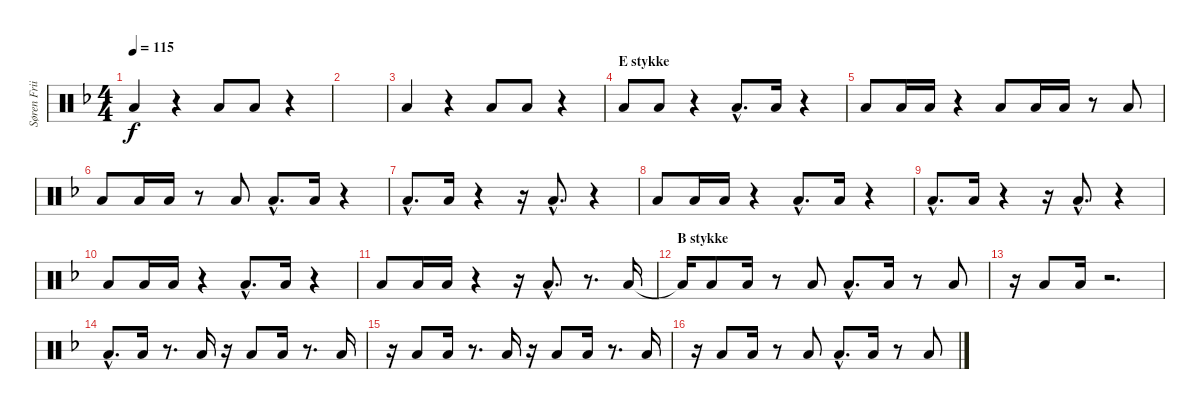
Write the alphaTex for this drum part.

\track ("Søren Friis (Floor Drum)" "Søren Frii") {instrument percussion}
\staff {score}
\articulation defaults
\ts (4 4)
\tempo 115
\clef neutral
\ks f "Low Floor Tom (hit)".4{dy f}
r.4 "Low Floor Tom (hit)".8 "Low Floor Tom (hit)".8 r.4 |
|
"Low Floor Tom (hit)".4 r.4 "Low Floor Tom (hit)".8 "Low Floor Tom (hit)".8 r.4 |
\section ("" "E stykke")
"Low Floor Tom (hit)".8 "Low Floor Tom (hit)".8 r.4 "Low Floor Tom (hit)"{hac}.8{d} "Low Floor Tom (hit)".16 r.4 |
"Low Floor Tom (hit)".8 "Low Floor Tom (hit)".16 "Low Floor Tom (hit)".16 r.4 "Low Floor Tom (hit)".8 "Low Floor Tom (hit)".16 "Low Floor Tom (hit)".16 r.8 "Low Floor Tom (hit)".8 |
"Low Floor Tom (hit)".8 "Low Floor Tom (hit)".16 "Low Floor Tom (hit)".16 r.8 "Low Floor Tom (hit)".8 "Low Floor Tom (hit)"{hac}.8{d} "Low Floor Tom (hit)".16 r.4 |
"Low Floor Tom (hit)"{hac}.8{d} "Low Floor Tom (hit)".16 r.4 r.16 "Low Floor Tom (hit)"{hac}.8{d} r.4 |
"Low Floor Tom (hit)".8 "Low Floor Tom (hit)".16 "Low Floor Tom (hit)".16 r.4 "Low Floor Tom (hit)"{hac}.8{d} "Low Floor Tom (hit)".16 r.4 |
"Low Floor Tom (hit)"{hac}.8{d} "Low Floor Tom (hit)".16 r.4 r.16 "Low Floor Tom (hit)"{hac}.8{d} r.4 |
"Low Floor Tom (hit)".8 "Low Floor Tom (hit)".16 "Low Floor Tom (hit)".16 r.4 "Low Floor Tom (hit)"{hac}.8{d} "Low Floor Tom (hit)".16 r.4 |
"Low Floor Tom (hit)".8 "Low Floor Tom (hit)".16 "Low Floor Tom (hit)".16 r.4 r.16 "Low Floor Tom (hit)"{hac}.8{d} r.8{d} "Low Floor Tom (hit)".16 |
\section ("" "B stykke")
"Low Floor Tom (hit)"{t}.16 "Low Floor Tom (hit)".8 "Low Floor Tom (hit)".16 r.8 "Low Floor Tom (hit)".8 "Low Floor Tom (hit)"{hac}.8{d} "Low Floor Tom (hit)".16 r.8 "Low Floor Tom (hit)".8 |
r.16 "Low Floor Tom (hit)".8 "Low Floor Tom (hit)".16 r.2{d} |
"Low Floor Tom (hit)"{hac}.8{d} "Low Floor Tom (hit)".16 r.8{d} "Low Floor Tom (hit)".16 r.16 "Low Floor Tom (hit)".8 "Low Floor Tom (hit)".16 r.8{d} "Low Floor Tom (hit)".16 |
r.16 "Low Floor Tom (hit)".8 "Low Floor Tom (hit)".16 r.8{d} "Low Floor Tom (hit)".16 r.16 "Low Floor Tom (hit)".8 "Low Floor Tom (hit)".16 r.8{d} "Low Floor Tom (hit)".16 |
r.16 "Low Floor Tom (hit)".8 "Low Floor Tom (hit)".16 r.8 "Low Floor Tom (hit)".8 "Low Floor Tom (hit)"{hac}.8{d} "Low Floor Tom (hit)".16 r.8 "Low Floor Tom (hit)".8
